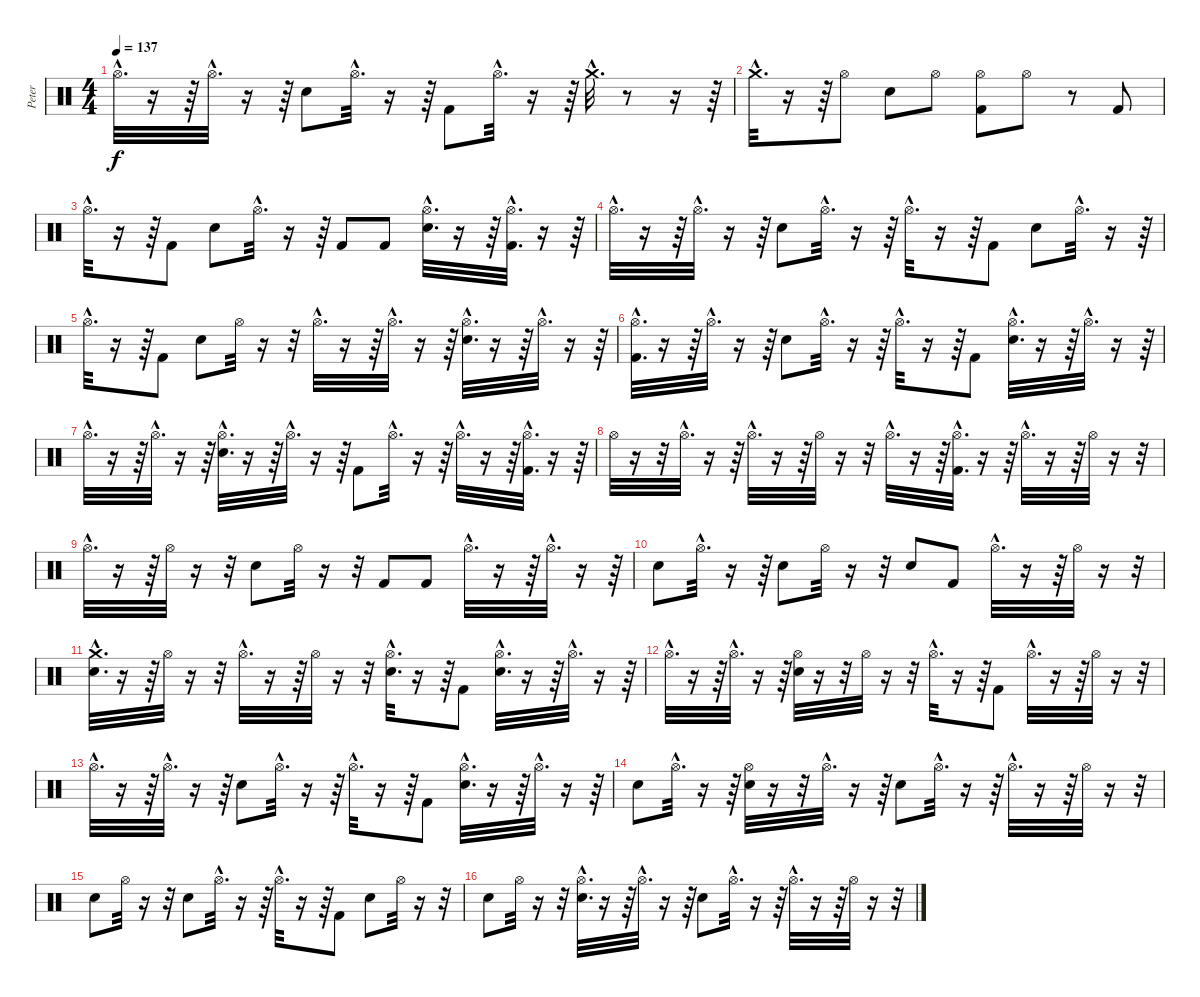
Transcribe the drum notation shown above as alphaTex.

\track ("Peter" "Peter") {instrument percussion}
\staff {score}
\articulation defaults
\ts (4 4)
\tempo 137
\clef neutral
\ks c "Hi-Hat (open)"{hac}.32{d dy f}
r.16 r.64 "Hi-Hat (open)"{hac}.32{d} r.16 r.64 "Electric Snare (hit)".8 "Hi-Hat (open)"{hac}.32{d} r.16 r.64 "Kick (hit) 2".8 "Hi-Hat (open)"{hac}.32{d} r.16 r.64 "Crash medium (hit)"{hac}.32{d} r.8 r.16 r.64 |
"Crash medium (hit)"{hac}.32{d} r.16 r.64 "Hi-Hat (open)".8 "Electric Snare (hit)".8 "Hi-Hat (open)".8 ("Kick (hit) 2" "Hi-Hat (open)").8 "Hi-Hat (open)".8 r.8 "Kick (hit) 2".8 |
"Hi-Hat (open)"{hac}.32{d} r.16 r.64 "Kick (hit) 2".8 "Electric Snare (hit)".8 "Hi-Hat (open)"{hac}.32{d} r.16 r.64 "Kick (hit) 2".8 "Kick (hit) 2".8 ("Electric Snare (hit)"{hac} "Hi-Hat (open)"{hac}).32{d} r.16 r.64 ("Kick (hit) 2"{hac} "Hi-Hat (open)"{hac}).32{d} r.16 r.64 |
"Hi-Hat (open)"{hac}.32{d} r.16 r.64 "Hi-Hat (open)"{hac}.32{d} r.16 r.64 "Electric Snare (hit)".8 "Hi-Hat (open)"{hac}.32{d} r.16 r.64 "Hi-Hat (open)"{hac}.32{d} r.16 r.64 "Kick (hit) 2".8 "Electric Snare (hit)".8 "Hi-Hat (open)"{hac}.32{d} r.16 r.64 |
"Hi-Hat (open)"{hac}.32{d} r.16 r.64 "Kick (hit) 2".8 "Electric Snare (hit)".8 "Hi-Hat (open)".32 r.16 r.32 "Hi-Hat (open)"{hac}.32{d} r.16 r.64 "Hi-Hat (open)"{hac}.32{d} r.16 r.64 ("Electric Snare (hit)"{hac} "Hi-Hat (open)"{hac}).32{d} r.16 r.64 "Hi-Hat (open)"{hac}.32{d} r.16 r.64 |
("Kick (hit) 2"{hac} "Hi-Hat (open)"{hac}).32{d} r.16 r.64 "Hi-Hat (open)"{hac}.32{d} r.16 r.64 "Electric Snare (hit)".8 "Hi-Hat (open)"{hac}.32{d} r.16 r.64 "Hi-Hat (open)"{hac}.32{d} r.16 r.64 "Kick (hit) 2".8 ("Electric Snare (hit)"{hac} "Hi-Hat (open)"{hac}).32{d} r.16 r.64 "Hi-Hat (open)"{hac}.32{d} r.16 r.64 |
"Hi-Hat (open)"{hac}.32{d} r.16 r.64 "Hi-Hat (open)"{hac}.32{d} r.16 r.64 ("Electric Snare (hit)"{hac} "Hi-Hat (open)"{hac}).32{d} r.16 r.64 "Hi-Hat (open)"{hac}.32{d} r.16 r.64 "Kick (hit) 2".8 "Hi-Hat (open)"{hac}.32{d} r.16 r.64 "Hi-Hat (open)"{hac}.32{d} r.16 r.64 ("Kick (hit) 2"{hac} "Hi-Hat (open)"{hac}).32{d} r.16 r.64 |
"Hi-Hat (open)".32 r.16 r.32 "Hi-Hat (open)"{hac}.32{d} r.16 r.64 "Hi-Hat (open)"{hac}.32{d} r.16 r.64 "Hi-Hat (open)".32 r.16 r.32 "Hi-Hat (open)"{hac}.32{d} r.16 r.64 ("Kick (hit) 2"{hac} "Hi-Hat (open)"{hac}).32{d} r.16 r.64 "Hi-Hat (open)"{hac}.32{d} r.16 r.64 "Hi-Hat (open)".32 r.16 r.32 |
"Hi-Hat (open)"{hac}.32{d} r.16 r.64 "Hi-Hat (open)".32 r.16 r.32 "Electric Snare (hit)".8 "Hi-Hat (open)".32 r.16 r.32 "Kick (hit) 2".8 "Kick (hit) 2".8 "Hi-Hat (open)"{hac}.32{d} r.16 r.64 "Hi-Hat (open)"{hac}.32{d} r.16 r.64 |
"Electric Snare (hit)".8 "Hi-Hat (open)"{hac}.32{d} r.16 r.64 "Electric Snare (hit)".8 "Hi-Hat (open)".32 r.16 r.32 "Electric Snare (hit)".8 "Kick (hit) 2".8 "Hi-Hat (open)"{hac}.32{d} r.16 r.64 "Hi-Hat (open)".32 r.16 r.32 |
("Electric Snare (hit)"{hac} "Crash medium (hit)"{hac}).32{d} r.16 r.64 "Hi-Hat (open)".32 r.16 r.32 "Hi-Hat (open)"{hac}.32{d} r.16 r.64 "Hi-Hat (open)".32 r.16 r.32 ("Electric Snare (hit)"{hac} "Hi-Hat (open)"{hac}).32{d} r.16 r.64 "Kick (hit) 2".8 ("Electric Snare (hit)"{hac} "Hi-Hat (open)"{hac}).32{d} r.16 r.64 "Hi-Hat (open)"{hac}.32{d} r.16 r.64 |
"Hi-Hat (open)"{hac}.32{d} r.16 r.64 "Hi-Hat (open)"{hac}.32{d} r.16 r.64 ("Electric Snare (hit)" "Hi-Hat (open)").32 r.16 r.32 "Hi-Hat (open)".32 r.16 r.32 "Hi-Hat (open)"{hac}.32{d} r.16 r.64 "Kick (hit) 2".8 "Hi-Hat (open)"{hac}.32{d} r.16 r.64 "Hi-Hat (open)".32 r.16 r.32 |
"Hi-Hat (open)"{hac}.32{d} r.16 r.64 "Hi-Hat (open)"{hac}.32{d} r.16 r.64 "Electric Snare (hit)".8 "Hi-Hat (open)"{hac}.32{d} r.16 r.64 "Hi-Hat (open)"{hac}.32{d} r.16 r.64 "Kick (hit) 2".8 ("Electric Snare (hit)"{hac} "Hi-Hat (open)"{hac}).32{d} r.16 r.64 "Hi-Hat (open)"{hac}.32{d} r.16 r.64 |
"Electric Snare (hit)".8 "Hi-Hat (open)"{hac}.32{d} r.16 r.64 ("Electric Snare (hit)" "Hi-Hat (open)").32 r.16 r.32 "Hi-Hat (open)"{hac}.32{d} r.16 r.64 "Electric Snare (hit)".8 "Hi-Hat (open)"{hac}.32{d} r.16 r.64 "Hi-Hat (open)"{hac}.32{d} r.16 r.64 "Hi-Hat (open)".32 r.16 r.32 |
"Electric Snare (hit)".8 "Hi-Hat (open)".32 r.16 r.32 "Electric Snare (hit)".8 "Hi-Hat (open)"{hac}.32{d} r.16 r.64 "Hi-Hat (open)"{hac}.32{d} r.16 r.64 "Kick (hit) 2".8 "Electric Snare (hit)".8 "Hi-Hat (open)".32 r.16 r.32 |
"Electric Snare (hit)".8 "Hi-Hat (open)".32 r.16 r.32 ("Electric Snare (hit)"{hac} "Hi-Hat (open)"{hac}).32{d} r.16 r.64 "Hi-Hat (open)"{hac}.32{d} r.16 r.64 "Electric Snare (hit)".8 "Hi-Hat (open)"{hac}.32{d} r.16 r.64 "Hi-Hat (open)"{hac}.32{d} r.16 r.64 "Hi-Hat (open)".32 r.16 r.32
